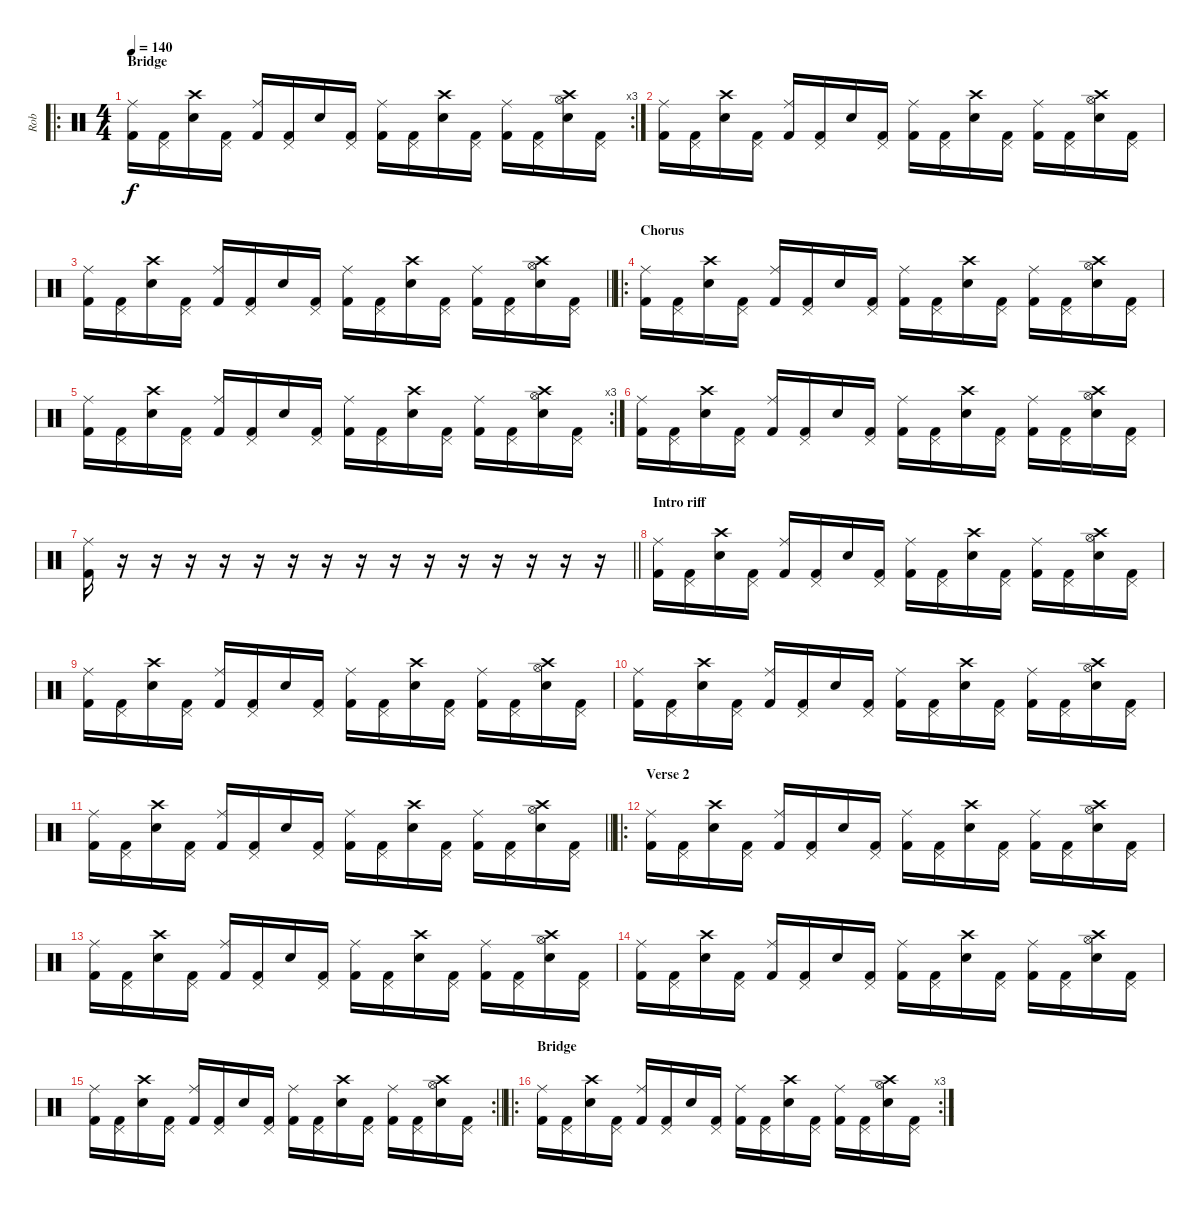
\track ("Rob" "Rob") {instrument percussion}
\staff {score}
\articulation defaults
\ro
\rc 3
\ts (4 4)
\section ("" "Bridge")
\tempo 140
\clef neutral
\ks c
("Ride (middle)" "Kick (hit) 2").16{dy f} ("Pedal Hi-Hat (hit)" "Kick (hit) 2").16 ("Crash high (hit)" "Snare (hit) 2").16 ("Pedal Hi-Hat (hit)" "Kick (hit) 2").16 ("Ride (middle)" "Kick (hit) 2").16 ("Pedal Hi-Hat (hit)" "Kick (hit) 2").16 "Snare (hit) 2".16 ("Pedal Hi-Hat (hit)" "Kick (hit) 2").16 ("Ride (middle)" "Kick (hit) 2").16 ("Pedal Hi-Hat (hit)" "Kick (hit) 2").16 ("Crash high (hit)" "Snare (hit) 2").16 ("Pedal Hi-Hat (hit)" "Kick (hit) 2").16 ("Ride (middle)" "Kick (hit) 2").16 ("Pedal Hi-Hat (hit)" "Kick (hit) 2").16 ("Crash high (hit)" "Hi-Hat (open)" "Snare (hit) 2").16 ("Pedal Hi-Hat (hit)" "Kick (hit) 2").16 |
("Ride (middle)" "Kick (hit) 2").16 ("Pedal Hi-Hat (hit)" "Kick (hit) 2").16 ("Crash high (hit)" "Snare (hit) 2").16 ("Pedal Hi-Hat (hit)" "Kick (hit) 2").16 ("Ride (middle)" "Kick (hit) 2").16 ("Pedal Hi-Hat (hit)" "Kick (hit) 2").16 "Snare (hit) 2".16 ("Pedal Hi-Hat (hit)" "Kick (hit) 2").16 ("Ride (middle)" "Kick (hit) 2").16 ("Pedal Hi-Hat (hit)" "Kick (hit) 2").16 ("Crash high (hit)" "Snare (hit) 2").16 ("Pedal Hi-Hat (hit)" "Kick (hit) 2").16 ("Ride (middle)" "Kick (hit) 2").16 ("Pedal Hi-Hat (hit)" "Kick (hit) 2").16 ("Crash high (hit)" "Hi-Hat (open)" "Snare (hit) 2").16 ("Pedal Hi-Hat (hit)" "Kick (hit) 2").16 |
\barLineRight lightlight
("Ride (middle)" "Kick (hit) 2").16 ("Pedal Hi-Hat (hit)" "Kick (hit) 2").16 ("Crash high (hit)" "Snare (hit) 2").16 ("Pedal Hi-Hat (hit)" "Kick (hit) 2").16 ("Ride (middle)" "Kick (hit) 2").16 ("Pedal Hi-Hat (hit)" "Kick (hit) 2").16 "Snare (hit) 2".16 ("Pedal Hi-Hat (hit)" "Kick (hit) 2").16 ("Ride (middle)" "Kick (hit) 2").16 ("Pedal Hi-Hat (hit)" "Kick (hit) 2").16 ("Crash high (hit)" "Snare (hit) 2").16 ("Pedal Hi-Hat (hit)" "Kick (hit) 2").16 ("Ride (middle)" "Kick (hit) 2").16 ("Pedal Hi-Hat (hit)" "Kick (hit) 2").16 ("Crash high (hit)" "Hi-Hat (open)" "Snare (hit) 2").16 ("Pedal Hi-Hat (hit)" "Kick (hit) 2").16 |
\ro
\section ("" "Chorus")
("Ride (middle)" "Kick (hit) 2").16 ("Pedal Hi-Hat (hit)" "Kick (hit) 2").16 ("Crash high (hit)" "Snare (hit) 2").16 ("Pedal Hi-Hat (hit)" "Kick (hit) 2").16 ("Ride (middle)" "Kick (hit) 2").16 ("Pedal Hi-Hat (hit)" "Kick (hit) 2").16 "Snare (hit) 2".16 ("Pedal Hi-Hat (hit)" "Kick (hit) 2").16 ("Ride (middle)" "Kick (hit) 2").16 ("Pedal Hi-Hat (hit)" "Kick (hit) 2").16 ("Crash high (hit)" "Snare (hit) 2").16 ("Pedal Hi-Hat (hit)" "Kick (hit) 2").16 ("Ride (middle)" "Kick (hit) 2").16 ("Pedal Hi-Hat (hit)" "Kick (hit) 2").16 ("Crash high (hit)" "Hi-Hat (open)" "Snare (hit) 2").16 ("Pedal Hi-Hat (hit)" "Kick (hit) 2").16 |
\rc 3
("Ride (middle)" "Kick (hit) 2").16 ("Pedal Hi-Hat (hit)" "Kick (hit) 2").16 ("Crash high (hit)" "Snare (hit) 2").16 ("Pedal Hi-Hat (hit)" "Kick (hit) 2").16 ("Ride (middle)" "Kick (hit) 2").16 ("Pedal Hi-Hat (hit)" "Kick (hit) 2").16 "Snare (hit) 2".16 ("Pedal Hi-Hat (hit)" "Kick (hit) 2").16 ("Ride (middle)" "Kick (hit) 2").16 ("Pedal Hi-Hat (hit)" "Kick (hit) 2").16 ("Crash high (hit)" "Snare (hit) 2").16 ("Pedal Hi-Hat (hit)" "Kick (hit) 2").16 ("Ride (middle)" "Kick (hit) 2").16 ("Pedal Hi-Hat (hit)" "Kick (hit) 2").16 ("Crash high (hit)" "Hi-Hat (open)" "Snare (hit) 2").16 ("Pedal Hi-Hat (hit)" "Kick (hit) 2").16 |
("Ride (middle)" "Kick (hit) 2").16 ("Pedal Hi-Hat (hit)" "Kick (hit) 2").16 ("Crash high (hit)" "Snare (hit) 2").16 ("Pedal Hi-Hat (hit)" "Kick (hit) 2").16 ("Ride (middle)" "Kick (hit) 2").16 ("Pedal Hi-Hat (hit)" "Kick (hit) 2").16 "Snare (hit) 2".16 ("Pedal Hi-Hat (hit)" "Kick (hit) 2").16 ("Ride (middle)" "Kick (hit) 2").16 ("Pedal Hi-Hat (hit)" "Kick (hit) 2").16 ("Crash high (hit)" "Snare (hit) 2").16 ("Pedal Hi-Hat (hit)" "Kick (hit) 2").16 ("Ride (middle)" "Kick (hit) 2").16 ("Pedal Hi-Hat (hit)" "Kick (hit) 2").16 ("Crash high (hit)" "Hi-Hat (open)" "Snare (hit) 2").16 ("Pedal Hi-Hat (hit)" "Kick (hit) 2").16 |
\barLineRight lightlight
("Ride (middle)" "Kick (hit) 2").16 r.16 r.16 r.16 r.16 r.16 r.16 r.16 r.16 r.16 r.16 r.16 r.16 r.16 r.16 r.16 |
\section ("" "Intro riff")
("Ride (middle)" "Kick (hit) 2").16 ("Pedal Hi-Hat (hit)" "Kick (hit) 2").16 ("Crash high (hit)" "Snare (hit) 2").16 ("Pedal Hi-Hat (hit)" "Kick (hit) 2").16 ("Ride (middle)" "Kick (hit) 2").16 ("Pedal Hi-Hat (hit)" "Kick (hit) 2").16 "Snare (hit) 2".16 ("Pedal Hi-Hat (hit)" "Kick (hit) 2").16 ("Ride (middle)" "Kick (hit) 2").16 ("Pedal Hi-Hat (hit)" "Kick (hit) 2").16 ("Crash high (hit)" "Snare (hit) 2").16 ("Pedal Hi-Hat (hit)" "Kick (hit) 2").16 ("Ride (middle)" "Kick (hit) 2").16 ("Pedal Hi-Hat (hit)" "Kick (hit) 2").16 ("Crash high (hit)" "Hi-Hat (open)" "Snare (hit) 2").16 ("Pedal Hi-Hat (hit)" "Kick (hit) 2").16 |
("Ride (middle)" "Kick (hit) 2").16 ("Pedal Hi-Hat (hit)" "Kick (hit) 2").16 ("Crash high (hit)" "Snare (hit) 2").16 ("Pedal Hi-Hat (hit)" "Kick (hit) 2").16 ("Ride (middle)" "Kick (hit) 2").16 ("Pedal Hi-Hat (hit)" "Kick (hit) 2").16 "Snare (hit) 2".16 ("Pedal Hi-Hat (hit)" "Kick (hit) 2").16 ("Ride (middle)" "Kick (hit) 2").16 ("Pedal Hi-Hat (hit)" "Kick (hit) 2").16 ("Crash high (hit)" "Snare (hit) 2").16 ("Pedal Hi-Hat (hit)" "Kick (hit) 2").16 ("Ride (middle)" "Kick (hit) 2").16 ("Pedal Hi-Hat (hit)" "Kick (hit) 2").16 ("Crash high (hit)" "Hi-Hat (open)" "Snare (hit) 2").16 ("Pedal Hi-Hat (hit)" "Kick (hit) 2").16 |
("Ride (middle)" "Kick (hit) 2").16 ("Pedal Hi-Hat (hit)" "Kick (hit) 2").16 ("Crash high (hit)" "Snare (hit) 2").16 ("Pedal Hi-Hat (hit)" "Kick (hit) 2").16 ("Ride (middle)" "Kick (hit) 2").16 ("Pedal Hi-Hat (hit)" "Kick (hit) 2").16 "Snare (hit) 2".16 ("Pedal Hi-Hat (hit)" "Kick (hit) 2").16 ("Ride (middle)" "Kick (hit) 2").16 ("Pedal Hi-Hat (hit)" "Kick (hit) 2").16 ("Crash high (hit)" "Snare (hit) 2").16 ("Pedal Hi-Hat (hit)" "Kick (hit) 2").16 ("Ride (middle)" "Kick (hit) 2").16 ("Pedal Hi-Hat (hit)" "Kick (hit) 2").16 ("Crash high (hit)" "Hi-Hat (open)" "Snare (hit) 2").16 ("Pedal Hi-Hat (hit)" "Kick (hit) 2").16 |
\barLineRight lightlight
("Ride (middle)" "Kick (hit) 2").16 ("Pedal Hi-Hat (hit)" "Kick (hit) 2").16 ("Crash high (hit)" "Snare (hit) 2").16 ("Pedal Hi-Hat (hit)" "Kick (hit) 2").16 ("Ride (middle)" "Kick (hit) 2").16 ("Pedal Hi-Hat (hit)" "Kick (hit) 2").16 "Snare (hit) 2".16 ("Pedal Hi-Hat (hit)" "Kick (hit) 2").16 ("Ride (middle)" "Kick (hit) 2").16 ("Pedal Hi-Hat (hit)" "Kick (hit) 2").16 ("Crash high (hit)" "Snare (hit) 2").16 ("Pedal Hi-Hat (hit)" "Kick (hit) 2").16 ("Ride (middle)" "Kick (hit) 2").16 ("Pedal Hi-Hat (hit)" "Kick (hit) 2").16 ("Crash high (hit)" "Hi-Hat (open)" "Snare (hit) 2").16 ("Pedal Hi-Hat (hit)" "Kick (hit) 2").16 |
\ro
\section ("" "Verse 2")
("Ride (middle)" "Kick (hit) 2").16 ("Pedal Hi-Hat (hit)" "Kick (hit) 2").16 ("Crash high (hit)" "Snare (hit) 2").16 ("Pedal Hi-Hat (hit)" "Kick (hit) 2").16 ("Ride (middle)" "Kick (hit) 2").16 ("Pedal Hi-Hat (hit)" "Kick (hit) 2").16 "Snare (hit) 2".16 ("Pedal Hi-Hat (hit)" "Kick (hit) 2").16 ("Ride (middle)" "Kick (hit) 2").16 ("Pedal Hi-Hat (hit)" "Kick (hit) 2").16 ("Crash high (hit)" "Snare (hit) 2").16 ("Pedal Hi-Hat (hit)" "Kick (hit) 2").16 ("Ride (middle)" "Kick (hit) 2").16 ("Pedal Hi-Hat (hit)" "Kick (hit) 2").16 ("Crash high (hit)" "Hi-Hat (open)" "Snare (hit) 2").16 ("Pedal Hi-Hat (hit)" "Kick (hit) 2").16 |
("Ride (middle)" "Kick (hit) 2").16 ("Pedal Hi-Hat (hit)" "Kick (hit) 2").16 ("Crash high (hit)" "Snare (hit) 2").16 ("Pedal Hi-Hat (hit)" "Kick (hit) 2").16 ("Ride (middle)" "Kick (hit) 2").16 ("Pedal Hi-Hat (hit)" "Kick (hit) 2").16 "Snare (hit) 2".16 ("Pedal Hi-Hat (hit)" "Kick (hit) 2").16 ("Ride (middle)" "Kick (hit) 2").16 ("Pedal Hi-Hat (hit)" "Kick (hit) 2").16 ("Crash high (hit)" "Snare (hit) 2").16 ("Pedal Hi-Hat (hit)" "Kick (hit) 2").16 ("Ride (middle)" "Kick (hit) 2").16 ("Pedal Hi-Hat (hit)" "Kick (hit) 2").16 ("Crash high (hit)" "Hi-Hat (open)" "Snare (hit) 2").16 ("Pedal Hi-Hat (hit)" "Kick (hit) 2").16 |
("Ride (middle)" "Kick (hit) 2").16 ("Pedal Hi-Hat (hit)" "Kick (hit) 2").16 ("Crash high (hit)" "Snare (hit) 2").16 ("Pedal Hi-Hat (hit)" "Kick (hit) 2").16 ("Ride (middle)" "Kick (hit) 2").16 ("Pedal Hi-Hat (hit)" "Kick (hit) 2").16 "Snare (hit) 2".16 ("Pedal Hi-Hat (hit)" "Kick (hit) 2").16 ("Ride (middle)" "Kick (hit) 2").16 ("Pedal Hi-Hat (hit)" "Kick (hit) 2").16 ("Crash high (hit)" "Snare (hit) 2").16 ("Pedal Hi-Hat (hit)" "Kick (hit) 2").16 ("Ride (middle)" "Kick (hit) 2").16 ("Pedal Hi-Hat (hit)" "Kick (hit) 2").16 ("Crash high (hit)" "Hi-Hat (open)" "Snare (hit) 2").16 ("Pedal Hi-Hat (hit)" "Kick (hit) 2").16 |
\rc 2
\barLineRight lightlight
("Ride (middle)" "Kick (hit) 2").16 ("Pedal Hi-Hat (hit)" "Kick (hit) 2").16 ("Crash high (hit)" "Snare (hit) 2").16 ("Pedal Hi-Hat (hit)" "Kick (hit) 2").16 ("Ride (middle)" "Kick (hit) 2").16 ("Pedal Hi-Hat (hit)" "Kick (hit) 2").16 "Snare (hit) 2".16 ("Pedal Hi-Hat (hit)" "Kick (hit) 2").16 ("Ride (middle)" "Kick (hit) 2").16 ("Pedal Hi-Hat (hit)" "Kick (hit) 2").16 ("Crash high (hit)" "Snare (hit) 2").16 ("Pedal Hi-Hat (hit)" "Kick (hit) 2").16 ("Ride (middle)" "Kick (hit) 2").16 ("Pedal Hi-Hat (hit)" "Kick (hit) 2").16 ("Crash high (hit)" "Hi-Hat (open)" "Snare (hit) 2").16 ("Pedal Hi-Hat (hit)" "Kick (hit) 2").16 |
\ro
\rc 3
\section ("" "Bridge")
("Ride (middle)" "Kick (hit) 2").16 ("Pedal Hi-Hat (hit)" "Kick (hit) 2").16 ("Crash high (hit)" "Snare (hit) 2").16 ("Pedal Hi-Hat (hit)" "Kick (hit) 2").16 ("Ride (middle)" "Kick (hit) 2").16 ("Pedal Hi-Hat (hit)" "Kick (hit) 2").16 "Snare (hit) 2".16 ("Pedal Hi-Hat (hit)" "Kick (hit) 2").16 ("Ride (middle)" "Kick (hit) 2").16 ("Pedal Hi-Hat (hit)" "Kick (hit) 2").16 ("Crash high (hit)" "Snare (hit) 2").16 ("Pedal Hi-Hat (hit)" "Kick (hit) 2").16 ("Ride (middle)" "Kick (hit) 2").16 ("Pedal Hi-Hat (hit)" "Kick (hit) 2").16 ("Crash high (hit)" "Hi-Hat (open)" "Snare (hit) 2").16 ("Pedal Hi-Hat (hit)" "Kick (hit) 2").16
